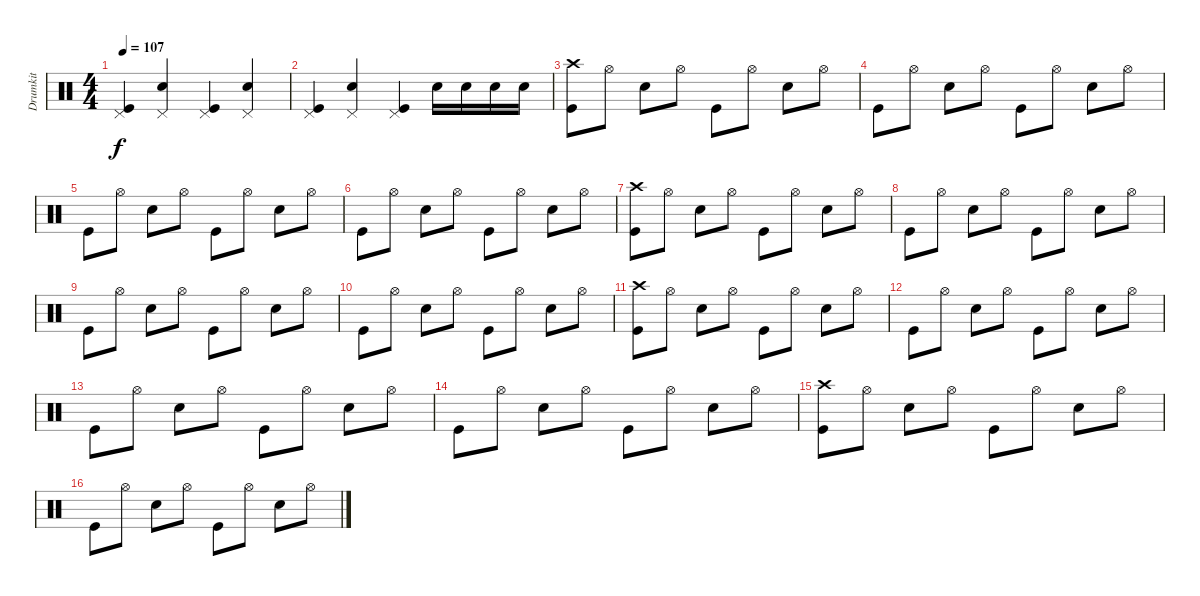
\track ("Drumkit" "Drumkit") {instrument percussion}
\staff {score}
\articulation defaults
\ts (4 4)
\tempo 107
\clef neutral
\ks c
("Pedal Hi-Hat (hit)" "Kick (hit)").4{dy f} ("Pedal Hi-Hat (hit)" "Snare (hit) 2").4 ("Pedal Hi-Hat (hit)" "Kick (hit)").4 ("Pedal Hi-Hat (hit)" "Snare (hit) 2").4 |
("Pedal Hi-Hat (hit)" "Kick (hit)").4 ("Pedal Hi-Hat (hit)" "Snare (hit) 2").4 ("Pedal Hi-Hat (hit)" "Kick (hit)").4 "Snare (hit) 2".16 "Snare (hit) 2".16 "Snare (hit) 2".16 "Snare (hit) 2".16 |
("Kick (hit)" "Crash high (hit)").8 "Hi-Hat (open)".8 "Snare (hit) 2".8 "Hi-Hat (open)".8 "Kick (hit)".8 "Hi-Hat (open)".8 "Snare (hit) 2".8 "Hi-Hat (open)".8 |
"Kick (hit)".8 "Hi-Hat (open)".8 "Snare (hit) 2".8 "Hi-Hat (open)".8 "Kick (hit)".8 "Hi-Hat (open)".8 "Snare (hit) 2".8 "Hi-Hat (open)".8 |
"Kick (hit)".8 "Hi-Hat (open)".8 "Snare (hit) 2".8 "Hi-Hat (open)".8 "Kick (hit)".8 "Hi-Hat (open)".8 "Snare (hit) 2".8 "Hi-Hat (open)".8 |
"Kick (hit)".8 "Hi-Hat (open)".8 "Snare (hit) 2".8 "Hi-Hat (open)".8 "Kick (hit)".8 "Hi-Hat (open)".8 "Snare (hit) 2".8 "Hi-Hat (open)".8 |
("Kick (hit)" "Crash high (hit)").8 "Hi-Hat (open)".8 "Snare (hit) 2".8 "Hi-Hat (open)".8 "Kick (hit)".8 "Hi-Hat (open)".8 "Snare (hit) 2".8 "Hi-Hat (open)".8 |
"Kick (hit)".8 "Hi-Hat (open)".8 "Snare (hit) 2".8 "Hi-Hat (open)".8 "Kick (hit)".8 "Hi-Hat (open)".8 "Snare (hit) 2".8 "Hi-Hat (open)".8 |
"Kick (hit)".8 "Hi-Hat (open)".8 "Snare (hit) 2".8 "Hi-Hat (open)".8 "Kick (hit)".8 "Hi-Hat (open)".8 "Snare (hit) 2".8 "Hi-Hat (open)".8 |
"Kick (hit)".8 "Hi-Hat (open)".8 "Snare (hit) 2".8 "Hi-Hat (open)".8 "Kick (hit)".8 "Hi-Hat (open)".8 "Snare (hit) 2".8 "Hi-Hat (open)".8 |
("Kick (hit)" "Crash high (hit)").8 "Hi-Hat (open)".8 "Snare (hit) 2".8 "Hi-Hat (open)".8 "Kick (hit)".8 "Hi-Hat (open)".8 "Snare (hit) 2".8 "Hi-Hat (open)".8 |
"Kick (hit)".8 "Hi-Hat (open)".8 "Snare (hit) 2".8 "Hi-Hat (open)".8 "Kick (hit)".8 "Hi-Hat (open)".8 "Snare (hit) 2".8 "Hi-Hat (open)".8 |
"Kick (hit)".8 "Hi-Hat (open)".8 "Snare (hit) 2".8 "Hi-Hat (open)".8 "Kick (hit)".8 "Hi-Hat (open)".8 "Snare (hit) 2".8 "Hi-Hat (open)".8 |
"Kick (hit)".8 "Hi-Hat (open)".8 "Snare (hit) 2".8 "Hi-Hat (open)".8 "Kick (hit)".8 "Hi-Hat (open)".8 "Snare (hit) 2".8 "Hi-Hat (open)".8 |
("Kick (hit)" "Crash high (hit)").8 "Hi-Hat (open)".8 "Snare (hit) 2".8 "Hi-Hat (open)".8 "Kick (hit)".8 "Hi-Hat (open)".8 "Snare (hit) 2".8 "Hi-Hat (open)".8 |
"Kick (hit)".8 "Hi-Hat (open)".8 "Snare (hit) 2".8 "Hi-Hat (open)".8 "Kick (hit)".8 "Hi-Hat (open)".8 "Snare (hit) 2".8 "Hi-Hat (open)".8
